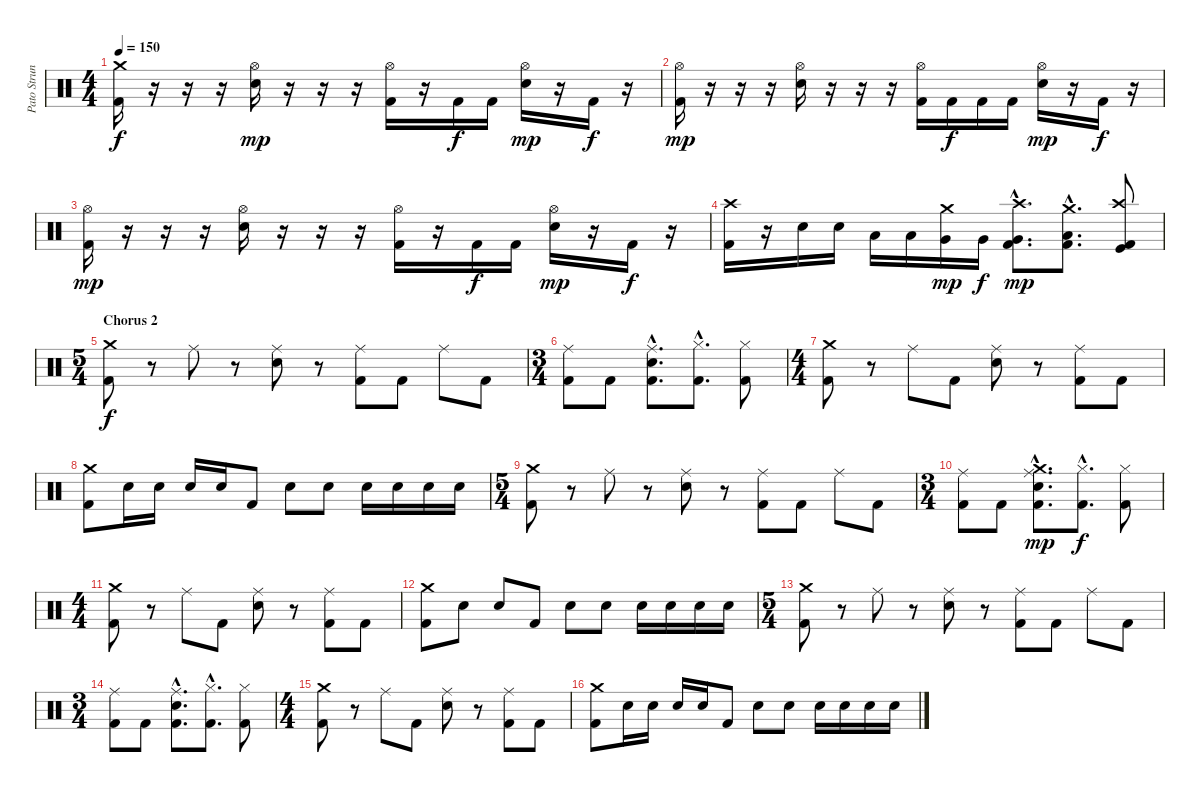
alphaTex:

\track ("Pato Strunz" "Pato Strun") {instrument percussion}
\staff {score}
\articulation defaults
\ts (4 4)
\tempo 150
\clef neutral
\ks c
("Crash medium (hit)" "Kick (hit) 2").16{dy f} r.16 r.16 r.16 ("Hi-Hat (open)" "Electric Snare (hit)").16{dy mp} r.16 r.16 r.16 ("Hi-Hat (open)" "Kick (hit) 2").16 r.16 "Kick (hit) 2".16{dy f} "Kick (hit) 2".16 ("Hi-Hat (open)" "Electric Snare (hit)").16{dy mp} r.16 "Kick (hit) 2".16{dy f} r.16 |
("Hi-Hat (open)" "Kick (hit) 2").16{dy mp} r.16 r.16 r.16 ("Hi-Hat (open)" "Electric Snare (hit)").16 r.16 r.16 r.16 ("Hi-Hat (open)" "Kick (hit) 2").16 "Kick (hit) 2".16{dy f} "Kick (hit) 2".16 "Kick (hit) 2".16 ("Hi-Hat (open)" "Electric Snare (hit)").16{dy mp} r.16 "Kick (hit) 2".16{dy f} r.16 |
("Hi-Hat (open)" "Kick (hit) 2").16{dy mp} r.16 r.16 r.16 ("Hi-Hat (open)" "Electric Snare (hit)").16 r.16 r.16 r.16 ("Hi-Hat (open)" "Kick (hit) 2").16 r.16 "Kick (hit) 2".16{dy f} "Kick (hit) 2".16 ("Hi-Hat (open)" "Electric Snare (hit)").16{dy mp} r.16 "Kick (hit) 2".16{dy f} r.16 |
("Crash high (hit)" "Kick (hit) 2").16 r.16 "Electric Snare (hit)".16 "Electric Snare (hit)".16 "Low Tom (hit)".16 "Low Tom (hit)".16 ("Crash medium (hit)" "Very Low Tom (hit)").16{dy mp} "Very Low Tom (hit)".16{dy f} ("Crash high (hit)"{hac} "Very Low Tom (hit)"{hac} "Kick (hit) 2"{hac}).8{d dy mp} ("Crash medium (hit)"{hac} "Low Floor Tom (hit)"{hac} "Kick (hit) 2"{hac}).8{d} ("Crash high (hit)" "Kick (hit)" "Kick (hit) 2").8 |
\ts (5 4)
\section ("" "Chorus 2")
("Crash medium (hit)" "Kick (hit) 2").8{dy f} r.8 "Ride (middle)".8 r.8 ("Ride (middle)" "Electric Snare (hit)").8 r.8 ("Ride (middle)" "Kick (hit) 2").8 "Kick (hit) 2".8 "Ride (middle)".8 "Kick (hit) 2".8 |
\ts (3 4)
("Ride (middle)" "Kick (hit) 2").8 "Kick (hit) 2".8 ("Ride (middle)"{hac} "Electric Snare (hit)"{hac} "Kick (hit) 2"{hac}).8{d} ("Hi-Hat (closed)"{hac} "Kick (hit) 2"{hac}).8{d} ("Hi-Hat (closed)" "Kick (hit) 2").8 |
\ts (4 4)
("Crash medium (hit)" "Kick (hit) 2").8 r.8 "Ride (middle)".8 "Kick (hit) 2".8 ("Ride (middle)" "Electric Snare (hit)").8 r.8 ("Ride (middle)" "Kick (hit) 2").8 "Kick (hit) 2".8 |
("Crash medium (hit)" "Kick (hit) 2").8 "Electric Snare (hit)".16 "Electric Snare (hit)".16 "Electric Snare (hit)".16 "Electric Snare (hit)".16 "Kick (hit) 2".8 "Electric Snare (hit)".8 "Electric Snare (hit)".8 "Electric Snare (hit)".16 "Electric Snare (hit)".16 "Electric Snare (hit)".16 "Electric Snare (hit)".16 |
\ts (5 4)
("Crash medium (hit)" "Kick (hit) 2").8 r.8 "Ride (middle)".8 r.8 ("Ride (middle)" "Electric Snare (hit)").8 r.8 ("Ride (middle)" "Kick (hit) 2").8 "Kick (hit) 2".8 "Ride (middle)".8 "Kick (hit) 2".8 |
\ts (3 4)
("Ride (middle)" "Kick (hit) 2").8 "Kick (hit) 2".8 ("Ride (middle)"{hac} "Crash medium (hit)"{hac} "Electric Snare (hit)"{hac} "Kick (hit) 2"{hac}).8{d dy mp} ("Hi-Hat (closed)"{hac} "Kick (hit) 2"{hac}).8{d dy f} ("Hi-Hat (closed)" "Kick (hit) 2").8 |
\ts (4 4)
("Crash medium (hit)" "Kick (hit) 2").8 r.8 "Ride (middle)".8 "Kick (hit) 2".8 ("Ride (middle)" "Electric Snare (hit)").8 r.8 ("Ride (middle)" "Kick (hit) 2").8 "Kick (hit) 2".8 |
("Crash medium (hit)" "Kick (hit) 2").8 "Electric Snare (hit)".8 "Electric Snare (hit)".8 "Kick (hit) 2".8 "Electric Snare (hit)".8 "Electric Snare (hit)".8 "Electric Snare (hit)".16 "Electric Snare (hit)".16 "Electric Snare (hit)".16 "Electric Snare (hit)".16 |
\ts (5 4)
("Crash medium (hit)" "Kick (hit) 2").8 r.8 "Ride (middle)".8 r.8 ("Ride (middle)" "Electric Snare (hit)").8 r.8 ("Ride (middle)" "Kick (hit) 2").8 "Kick (hit) 2".8 "Ride (middle)".8 "Kick (hit) 2".8 |
\ts (3 4)
("Ride (middle)" "Kick (hit) 2").8 "Kick (hit) 2".8 ("Ride (middle)"{hac} "Electric Snare (hit)"{hac} "Kick (hit) 2"{hac}).8{d} ("Hi-Hat (closed)"{hac} "Kick (hit) 2"{hac}).8{d} ("Hi-Hat (closed)" "Kick (hit) 2").8 |
\ts (4 4)
("Crash medium (hit)" "Kick (hit) 2").8 r.8 "Ride (middle)".8 "Kick (hit) 2".8 ("Ride (middle)" "Electric Snare (hit)").8 r.8 ("Ride (middle)" "Kick (hit) 2").8 "Kick (hit) 2".8 |
("Crash medium (hit)" "Kick (hit) 2").8 "Electric Snare (hit)".16 "Electric Snare (hit)".16 "Electric Snare (hit)".16 "Electric Snare (hit)".16 "Kick (hit) 2".8 "Electric Snare (hit)".8 "Electric Snare (hit)".8 "Electric Snare (hit)".16 "Electric Snare (hit)".16 "Electric Snare (hit)".16 "Electric Snare (hit)".16
